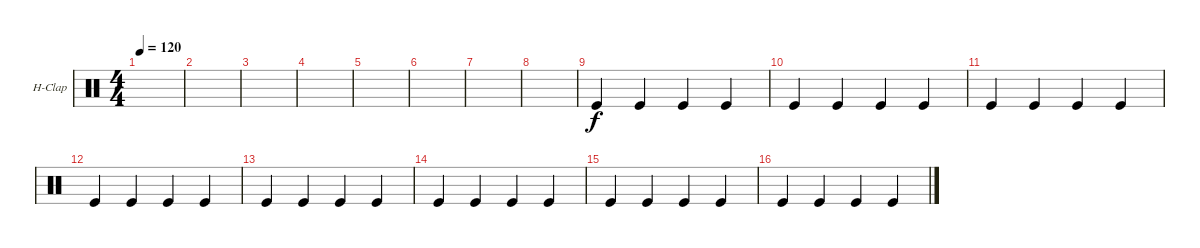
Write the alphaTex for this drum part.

\bracketExtendMode groupsimilarinstruments
\firstSystemTrackNameOrientation horizontal
\otherSystemsTrackNameOrientation horizontal
\track ("Hand Clap" "H-Clap") {instrument percussion}
\staff {score}
\articulation defaults
\ts (4 4)
\tempo 120
\clef neutral
\scale
0.333333
\ks c
|
\scale
0.333333 |
\scale
0.333333 |
\scale
0.333333 |
\scale
0.333333 |
\scale
0.333333 |
\scale
0.333333 |
|
"Kick (hit)".4 "Kick (hit)".4 "Kick (hit)".4 "Kick (hit)".4 |
"Kick (hit)".4 "Kick (hit)".4 "Kick (hit)".4 "Kick (hit)".4 |
"Kick (hit)".4 "Kick (hit)".4 "Kick (hit)".4 "Kick (hit)".4 |
"Kick (hit)".4 "Kick (hit)".4 "Kick (hit)".4 "Kick (hit)".4 |
"Kick (hit)".4 "Kick (hit)".4 "Kick (hit)".4 "Kick (hit)".4 |
"Kick (hit)".4 "Kick (hit)".4 "Kick (hit)".4 "Kick (hit)".4 |
"Kick (hit)".4 "Kick (hit)".4 "Kick (hit)".4 "Kick (hit)".4 |
"Kick (hit)".4 "Kick (hit)".4 "Kick (hit)".4 "Kick (hit)".4
